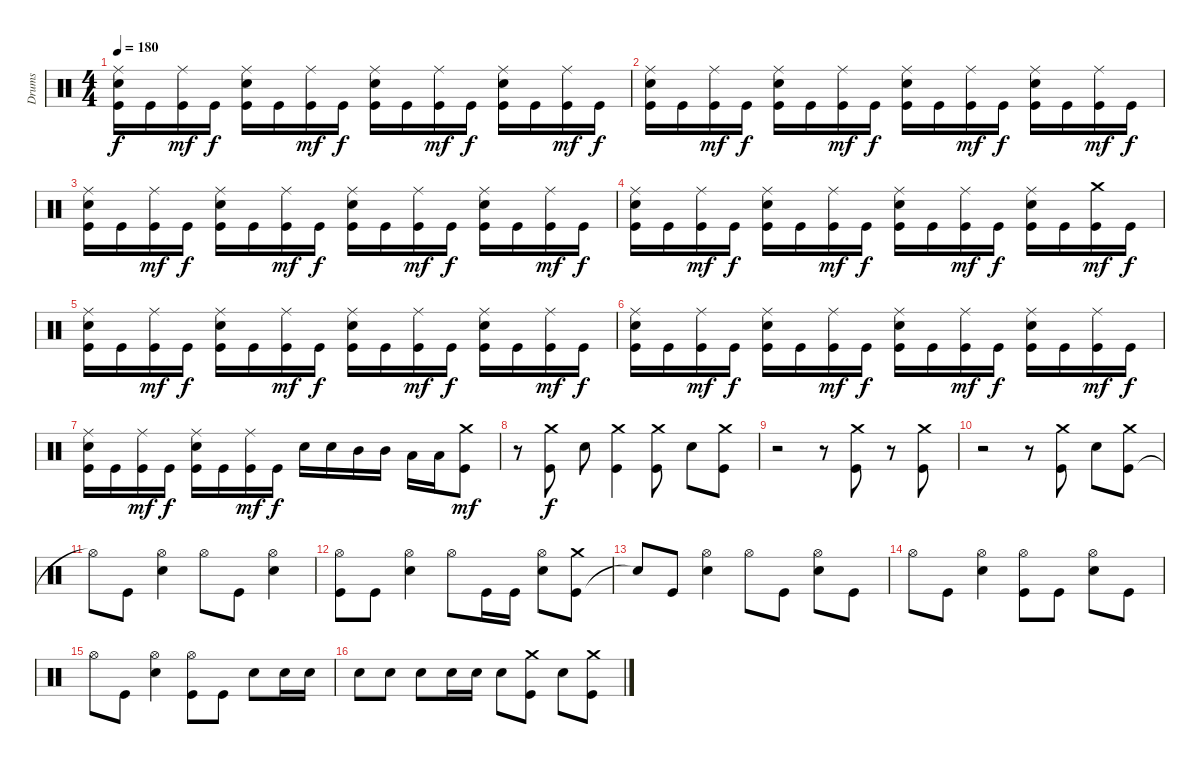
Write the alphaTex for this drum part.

\track ("Drums" "Drums") {instrument percussion}
\staff {score}
\articulation defaults
\ts (4 4)
\tempo 180
\clef neutral
\ks c
("Kick (hit)" "Electric Snare (hit)" "Ride (middle)").16{dy f} "Kick (hit)".16 ("Kick (hit)" "Ride (middle)").16{dy mf} "Kick (hit)".16{dy f} ("Kick (hit)" "Electric Snare (hit)" "Ride (middle)").16 "Kick (hit)".16 ("Kick (hit)" "Ride (middle)").16{dy mf} "Kick (hit)".16{dy f} ("Kick (hit)" "Electric Snare (hit)" "Ride (middle)").16 "Kick (hit)".16 ("Kick (hit)" "Ride (middle)").16{dy mf} "Kick (hit)".16{dy f} ("Kick (hit)" "Electric Snare (hit)" "Ride (middle)").16 "Kick (hit)".16 ("Kick (hit)" "Ride (middle)").16{dy mf} "Kick (hit)".16{dy f} |
("Kick (hit)" "Electric Snare (hit)" "Ride (middle)").16 "Kick (hit)".16 ("Kick (hit)" "Ride (middle)").16{dy mf} "Kick (hit)".16{dy f} ("Kick (hit)" "Electric Snare (hit)" "Ride (middle)").16 "Kick (hit)".16 ("Kick (hit)" "Ride (middle)").16{dy mf} "Kick (hit)".16{dy f} ("Kick (hit)" "Electric Snare (hit)" "Ride (middle)").16 "Kick (hit)".16 ("Kick (hit)" "Ride (middle)").16{dy mf} "Kick (hit)".16{dy f} ("Kick (hit)" "Electric Snare (hit)" "Ride (middle)").16 "Kick (hit)".16 ("Kick (hit)" "Ride (middle)").16{dy mf} "Kick (hit)".16{dy f} |
("Kick (hit)" "Electric Snare (hit)" "Ride (middle)").16 "Kick (hit)".16 ("Kick (hit)" "Ride (middle)").16{dy mf} "Kick (hit)".16{dy f} ("Kick (hit)" "Electric Snare (hit)" "Ride (middle)").16 "Kick (hit)".16 ("Kick (hit)" "Ride (middle)").16{dy mf} "Kick (hit)".16{dy f} ("Kick (hit)" "Electric Snare (hit)" "Ride (middle)").16 "Kick (hit)".16 ("Kick (hit)" "Ride (middle)").16{dy mf} "Kick (hit)".16{dy f} ("Kick (hit)" "Electric Snare (hit)" "Ride (middle)").16 "Kick (hit)".16 ("Kick (hit)" "Ride (middle)").16{dy mf} "Kick (hit)".16{dy f} |
("Kick (hit)" "Electric Snare (hit)" "Ride (middle)").16 "Kick (hit)".16 ("Kick (hit)" "Ride (middle)").16{dy mf} "Kick (hit)".16{dy f} ("Kick (hit)" "Electric Snare (hit)" "Ride (middle)").16 "Kick (hit)".16 ("Kick (hit)" "Ride (middle)").16{dy mf} "Kick (hit)".16{dy f} ("Kick (hit)" "Electric Snare (hit)" "Ride (middle)").16 "Kick (hit)".16 ("Kick (hit)" "Ride (middle)").16{dy mf} "Kick (hit)".16{dy f} ("Kick (hit)" "Electric Snare (hit)" "Ride (middle)").16 "Kick (hit)".16 ("Kick (hit)" "Crash medium (hit)").16{dy mf} "Kick (hit)".16{dy f} |
("Kick (hit)" "Electric Snare (hit)" "Ride (middle)").16 "Kick (hit)".16 ("Kick (hit)" "Ride (middle)").16{dy mf} "Kick (hit)".16{dy f} ("Kick (hit)" "Electric Snare (hit)" "Ride (middle)").16 "Kick (hit)".16 ("Kick (hit)" "Ride (middle)").16{dy mf} "Kick (hit)".16{dy f} ("Kick (hit)" "Electric Snare (hit)" "Ride (middle)").16 "Kick (hit)".16 ("Kick (hit)" "Ride (middle)").16{dy mf} "Kick (hit)".16{dy f} ("Kick (hit)" "Electric Snare (hit)" "Ride (middle)").16 "Kick (hit)".16 ("Kick (hit)" "Ride (middle)").16{dy mf} "Kick (hit)".16{dy f} |
("Kick (hit)" "Electric Snare (hit)" "Ride (middle)").16 "Kick (hit)".16 ("Kick (hit)" "Ride (middle)").16{dy mf} "Kick (hit)".16{dy f} ("Kick (hit)" "Electric Snare (hit)" "Ride (middle)").16 "Kick (hit)".16 ("Kick (hit)" "Ride (middle)").16{dy mf} "Kick (hit)".16{dy f} ("Kick (hit)" "Electric Snare (hit)" "Ride (middle)").16 "Kick (hit)".16 ("Kick (hit)" "Ride (middle)").16{dy mf} "Kick (hit)".16{dy f} ("Kick (hit)" "Electric Snare (hit)" "Ride (middle)").16 "Kick (hit)".16 ("Kick (hit)" "Ride (middle)").16{dy mf} "Kick (hit)".16{dy f} |
("Kick (hit)" "Electric Snare (hit)" "Ride (middle)").16 "Kick (hit)".16 ("Kick (hit)" "Ride (middle)").16{dy mf} "Kick (hit)".16{dy f} ("Kick (hit)" "Electric Snare (hit)" "Ride (middle)").16 "Kick (hit)".16 ("Kick (hit)" "Ride (middle)").16{dy mf} "Kick (hit)".16{dy f} "Electric Snare (hit)".16 "Electric Snare (hit)".16 "Mid Tom (hit)".16 "Mid Tom (hit)".16 "Low Tom (hit)".16 "Low Tom (hit)".16 ("Kick (hit)" "Crash medium (hit)").8{dy mf} |
r.8 ("Kick (hit)" "Crash medium (hit)").8{dy f} "Electric Snare (hit)".8 ("Kick (hit)" "Crash medium (hit)").4 ("Kick (hit)" "Crash medium (hit)").8 "Electric Snare (hit)".8 ("Kick (hit)" "Crash medium (hit)").8 |
r.2 r.8 ("Kick (hit)" "Crash medium (hit)").8 r.8 ("Kick (hit)" "Crash medium (hit)").8 |
r.2 r.8 ("Kick (hit)" "Crash medium (hit)").8 "Electric Snare (hit)".8 ("Kick (hit)" "Crash medium (hit)").8 |
"Hi-Hat (open)"{t}.8 "Kick (hit)".8 ("Electric Snare (hit)" "Hi-Hat (open)").4 "Hi-Hat (open)".8 "Kick (hit)".8 ("Electric Snare (hit)" "Hi-Hat (open)").4 |
("Kick (hit)" "Hi-Hat (open)").8 "Kick (hit)".8 ("Electric Snare (hit)" "Hi-Hat (open)").4 "Hi-Hat (open)".8 "Kick (hit)".16 "Kick (hit)".16 ("Electric Snare (hit)" "Hi-Hat (open)").8 ("Kick (hit)" "Crash medium (hit)").8 |
"Snare (hit)"{t}.8 "Kick (hit)".8 ("Electric Snare (hit)" "Hi-Hat (open)").4 "Hi-Hat (open)".8 "Kick (hit)".8 ("Electric Snare (hit)" "Hi-Hat (open)").8 "Kick (hit)".8 |
"Hi-Hat (open)".8 "Kick (hit)".8 ("Electric Snare (hit)" "Hi-Hat (open)").4 ("Kick (hit)" "Hi-Hat (open)").8 "Kick (hit)".8 ("Electric Snare (hit)" "Hi-Hat (open)").8 "Kick (hit)".8 |
"Hi-Hat (open)".8 "Kick (hit)".8 ("Electric Snare (hit)" "Hi-Hat (open)").4 ("Kick (hit)" "Hi-Hat (open)").8 "Kick (hit)".8 "Electric Snare (hit)".8 "Electric Snare (hit)".16 "Electric Snare (hit)".16 |
"Electric Snare (hit)".8 "Electric Snare (hit)".8 "Electric Snare (hit)".8 "Electric Snare (hit)".16 "Electric Snare (hit)".16 "Electric Snare (hit)".8 ("Kick (hit)" "Crash medium (hit)").8 "Electric Snare (hit)".8 ("Kick (hit)" "Crash medium (hit)").8
